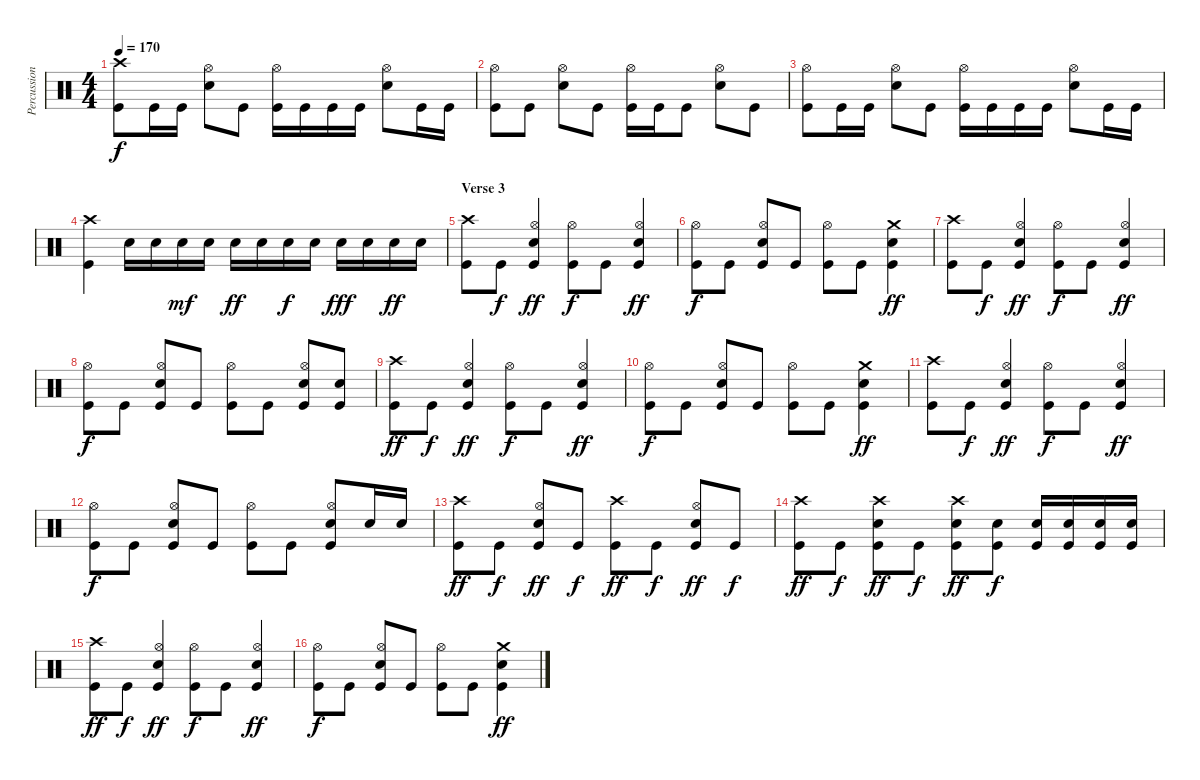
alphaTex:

\track ("Percussion" "Percussion") {instrument percussion}
\staff {score}
\articulation defaults
\ts (4 4)
\tempo 170
\clef neutral
\ks c
("Crash high (hit)" "Kick (hit)").8{dy f} "Kick (hit)".16 "Kick (hit)".16 ("Hi-Hat (open)" "Snare (hit) 2").8 "Kick (hit)".8 ("Hi-Hat (open)" "Kick (hit)").16 "Kick (hit)".16 "Kick (hit)".16 "Kick (hit)".16 ("Hi-Hat (open)" "Snare (hit) 2").8 "Kick (hit)".16 "Kick (hit)".16 |
("Hi-Hat (open)" "Kick (hit)").8 "Kick (hit)".8 ("Hi-Hat (open)" "Snare (hit) 2").8 "Kick (hit)".8 ("Hi-Hat (open)" "Kick (hit)").16 "Kick (hit)".16 "Kick (hit)".8 ("Hi-Hat (open)" "Snare (hit) 2").8 "Kick (hit)".8 |
("Hi-Hat (open)" "Kick (hit)").8 "Kick (hit)".16 "Kick (hit)".16 ("Hi-Hat (open)" "Snare (hit) 2").8 "Kick (hit)".8 ("Hi-Hat (open)" "Kick (hit)").16 "Kick (hit)".16 "Kick (hit)".16 "Kick (hit)".16 ("Hi-Hat (open)" "Snare (hit) 2").8 "Kick (hit)".16 "Kick (hit)".16 |
("Crash high (hit)" "Kick (hit)").4 "Snare (hit) 2".16 "Snare (hit) 2".16 "Snare (hit) 2".16{dy mf} "Snare (hit) 2".16 "Snare (hit) 2".16{dy ff} "Snare (hit) 2".16 "Snare (hit) 2".16{dy f} "Snare (hit) 2".16 "Snare (hit) 2".16{dy fff} "Snare (hit) 2".16 "Snare (hit) 2".16{dy ff} "Snare (hit) 2".16 |
\section ("" "Verse 3")
("Crash high (hit)" "Kick (hit)").8 "Kick (hit)".8{dy f} ("Hi-Hat (open)" "Snare (hit) 2" "Kick (hit)").4{dy ff} ("Hi-Hat (open)" "Kick (hit)").8{dy f} "Kick (hit)".8 ("Hi-Hat (open)" "Snare (hit) 2" "Kick (hit)").4{dy ff} |
("Hi-Hat (open)" "Kick (hit)").8{dy f} "Kick (hit)".8 ("Hi-Hat (open)" "Snare (hit) 2" "Kick (hit)").8 "Kick (hit)".8 ("Hi-Hat (open)" "Kick (hit)").8 "Kick (hit)".8 ("Crash medium (hit)" "Snare (hit) 2" "Kick (hit)").4{dy ff} |
("Crash high (hit)" "Kick (hit)").8 "Kick (hit)".8{dy f} ("Hi-Hat (open)" "Snare (hit) 2" "Kick (hit)").4{dy ff} ("Hi-Hat (open)" "Kick (hit)").8{dy f} "Kick (hit)".8 ("Hi-Hat (open)" "Snare (hit) 2" "Kick (hit)").4{dy ff} |
("Hi-Hat (open)" "Kick (hit)").8{dy f} "Kick (hit)".8 ("Hi-Hat (open)" "Snare (hit) 2" "Kick (hit)").8 "Kick (hit)".8 ("Hi-Hat (open)" "Kick (hit)").8 "Kick (hit)".8 ("Hi-Hat (open)" "Snare (hit) 2" "Kick (hit)").8 ("Snare (hit) 2" "Kick (hit)").8 |
("Crash high (hit)" "Kick (hit)").8{dy ff} "Kick (hit)".8{dy f} ("Hi-Hat (open)" "Snare (hit) 2" "Kick (hit)").4{dy ff} ("Hi-Hat (open)" "Kick (hit)").8{dy f} "Kick (hit)".8 ("Hi-Hat (open)" "Snare (hit) 2" "Kick (hit)").4{dy ff} |
("Hi-Hat (open)" "Kick (hit)").8{dy f} "Kick (hit)".8 ("Hi-Hat (open)" "Snare (hit) 2" "Kick (hit)").8 "Kick (hit)".8 ("Hi-Hat (open)" "Kick (hit)").8 "Kick (hit)".8 ("Crash medium (hit)" "Snare (hit) 2" "Kick (hit)").4{dy ff} |
("Crash high (hit)" "Kick (hit)").8 "Kick (hit)".8{dy f} ("Hi-Hat (open)" "Snare (hit) 2" "Kick (hit)").4{dy ff} ("Hi-Hat (open)" "Kick (hit)").8{dy f} "Kick (hit)".8 ("Hi-Hat (open)" "Snare (hit) 2" "Kick (hit)").4{dy ff} |
("Hi-Hat (open)" "Kick (hit)").8{dy f} "Kick (hit)".8 ("Hi-Hat (open)" "Snare (hit) 2" "Kick (hit)").8 "Kick (hit)".8 ("Hi-Hat (open)" "Kick (hit)").8 "Kick (hit)".8 ("Hi-Hat (open)" "Snare (hit) 2" "Kick (hit)").8 "Snare (hit) 2".16 "Snare (hit) 2".16 |
("Crash high (hit)" "Kick (hit)").8{dy ff} "Kick (hit)".8{dy f} ("Hi-Hat (open)" "Snare (hit) 2" "Kick (hit)").8{dy ff} "Kick (hit)".8{dy f} ("Crash high (hit)" "Kick (hit)").8{dy ff} "Kick (hit)".8{dy f} ("Hi-Hat (open)" "Snare (hit) 2" "Kick (hit)").8{dy ff} "Kick (hit)".8{dy f} |
("Crash high (hit)" "Kick (hit)").8{dy ff} "Kick (hit)".8{dy f} ("Crash high (hit)" "Snare (hit) 2" "Kick (hit)").8{dy ff} "Kick (hit)".8{dy f} ("Crash high (hit)" "Snare (hit) 2" "Kick (hit)").8{dy ff} ("Snare (hit) 2" "Kick (hit)").8{dy f} ("Snare (hit) 2" "Kick (hit)").16 ("Snare (hit) 2" "Kick (hit)").16 ("Snare (hit) 2" "Kick (hit)").16 ("Snare (hit) 2" "Kick (hit)").16 |
("Crash high (hit)" "Kick (hit)").8{dy ff} "Kick (hit)".8{dy f} ("Hi-Hat (open)" "Snare (hit) 2" "Kick (hit)").4{dy ff} ("Hi-Hat (open)" "Kick (hit)").8{dy f} "Kick (hit)".8 ("Hi-Hat (open)" "Snare (hit) 2" "Kick (hit)").4{dy ff} |
("Hi-Hat (open)" "Kick (hit)").8{dy f} "Kick (hit)".8 ("Hi-Hat (open)" "Snare (hit) 2" "Kick (hit)").8 "Kick (hit)".8 ("Hi-Hat (open)" "Kick (hit)").8 "Kick (hit)".8 ("Crash medium (hit)" "Snare (hit) 2" "Kick (hit)").4{dy ff}
